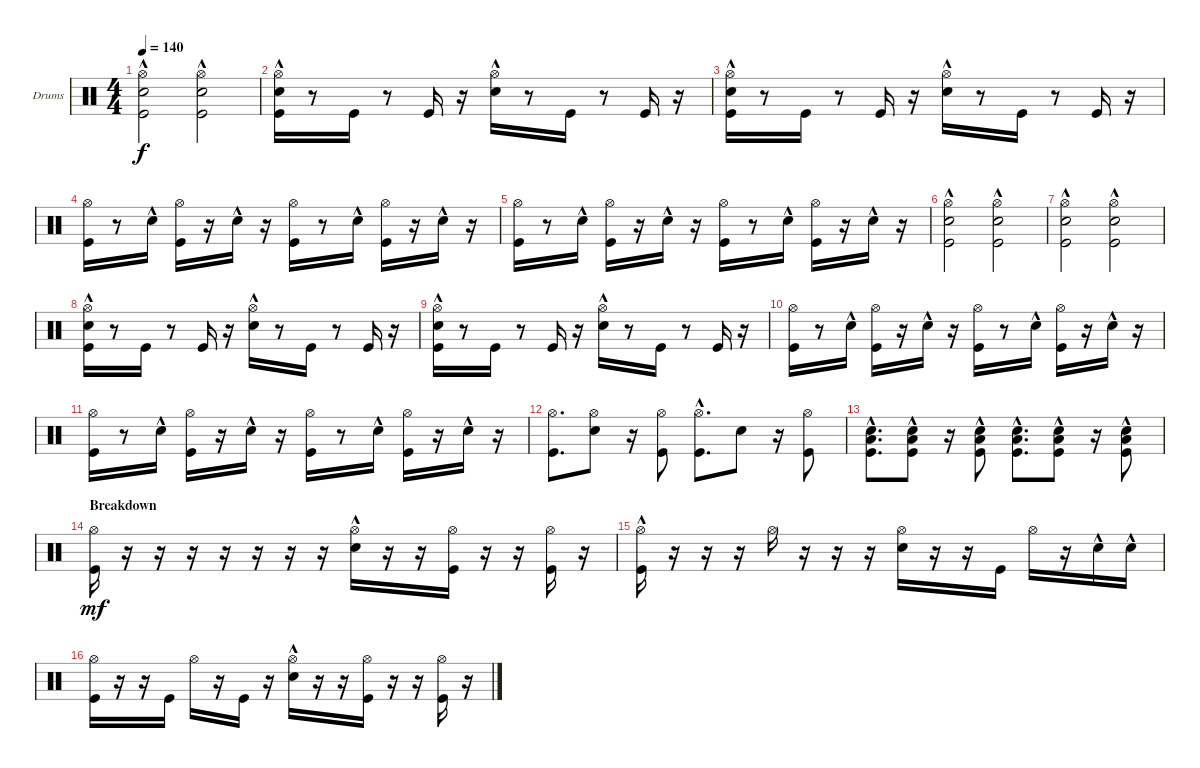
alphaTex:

\defaultSystemsLayout 4
\bracketExtendMode groupsimilarinstruments
\firstSystemTrackNameOrientation horizontal
\otherSystemsTrackNameOrientation horizontal
\track ("Drumkit - Paul" "Drums") {instrument percussion}
\staff {score}
\articulation defaults
\ts (4 4)
\tempo 140
\clef neutral
\ks c
("Snare (hit) 2"{hac} "Kick (hit)" "Hi-Hat (open)").2{dy f} ("Snare (hit) 2"{hac} "Kick (hit)" "Hi-Hat (open)").2 |
("Kick (hit)" "Snare (hit) 2"{hac} "Hi-Hat (open)").16 r.8 "Kick (hit)".16 r.8 "Kick (hit)".16 r.16 ("Snare (hit) 2"{hac} "Hi-Hat (open)").16 r.8 "Kick (hit)".16 r.8 "Kick (hit)".16 r.16 |
("Kick (hit)" "Snare (hit) 2"{hac} "Hi-Hat (open)").16 r.8 "Kick (hit)".16 r.8 "Kick (hit)".16 r.16 ("Snare (hit) 2"{hac} "Hi-Hat (open)").16 r.8 "Kick (hit)".16 r.8 "Kick (hit)".16 r.16 |
("Kick (hit)" "Hi-Hat (open)").16 r.8 "Snare (hit) 2"{hac}.16 ("Kick (hit)" "Hi-Hat (open)").16 r.16 "Snare (hit) 2"{hac}.16 r.16 ("Kick (hit)" "Hi-Hat (open)").16 r.8 "Snare (hit) 2"{hac}.16 ("Kick (hit)" "Hi-Hat (open)").16 r.16 "Snare (hit) 2"{hac}.16 r.16 |
("Kick (hit)" "Hi-Hat (open)").16 r.8 "Snare (hit) 2"{hac}.16 ("Kick (hit)" "Hi-Hat (open)").16 r.16 "Snare (hit) 2"{hac}.16 r.16 ("Kick (hit)" "Hi-Hat (open)").16 r.8 "Snare (hit) 2"{hac}.16 ("Kick (hit)" "Hi-Hat (open)").16 r.16 "Snare (hit) 2"{hac}.16 r.16 |
("Snare (hit) 2"{hac} "Kick (hit)" "Hi-Hat (open)").2 ("Snare (hit) 2"{hac} "Kick (hit)" "Hi-Hat (open)").2 |
("Snare (hit) 2"{hac} "Kick (hit)" "Hi-Hat (open)").2 ("Snare (hit) 2"{hac} "Kick (hit)" "Hi-Hat (open)").2 |
("Kick (hit)" "Snare (hit) 2"{hac} "Hi-Hat (open)").16 r.8 "Kick (hit)".16 r.8 "Kick (hit)".16 r.16 ("Snare (hit) 2"{hac} "Hi-Hat (open)").16 r.8 "Kick (hit)".16 r.8 "Kick (hit)".16 r.16 |
("Kick (hit)" "Snare (hit) 2"{hac} "Hi-Hat (open)").16 r.8 "Kick (hit)".16 r.8 "Kick (hit)".16 r.16 ("Snare (hit) 2"{hac} "Hi-Hat (open)").16 r.8 "Kick (hit)".16 r.8 "Kick (hit)".16 r.16 |
("Kick (hit)" "Hi-Hat (open)").16 r.8 "Snare (hit) 2"{hac}.16 ("Kick (hit)" "Hi-Hat (open)").16 r.16 "Snare (hit) 2"{hac}.16 r.16 ("Kick (hit)" "Hi-Hat (open)").16 r.8 "Snare (hit) 2"{hac}.16 ("Kick (hit)" "Hi-Hat (open)").16 r.16 "Snare (hit) 2"{hac}.16 r.16 |
("Kick (hit)" "Hi-Hat (open)").16 r.8 "Snare (hit) 2"{hac}.16 ("Kick (hit)" "Hi-Hat (open)").16 r.16 "Snare (hit) 2"{hac}.16 r.16 ("Kick (hit)" "Hi-Hat (open)").16 r.8 "Snare (hit) 2"{hac}.16 ("Kick (hit)" "Hi-Hat (open)").16 r.16 "Snare (hit) 2"{hac}.16 r.16 |
("Kick (hit)" "Hi-Hat (open)").8{d} ("Snare (hit) 2" "Hi-Hat (open)").8 r.16 ("Kick (hit)" "Hi-Hat (open)").8 ("Kick (hit)" "Hi-Hat (open)"{hac}).8{d} "Snare (hit) 2".8 r.16 ("Kick (hit)" "Hi-Hat (open)").8 |
("Snare (hit) 2"{hac} "Low Tom (hit)" "Kick (hit)").8{d} ("Snare (hit) 2"{hac} "Low Tom (hit)" "Kick (hit)").8 r.16 ("Snare (hit) 2"{hac} "Low Tom (hit)" "Kick (hit)").8 ("Snare (hit) 2"{hac} "Low Tom (hit)" "Kick (hit)").8{d} ("Snare (hit) 2"{hac} "Low Tom (hit)" "Kick (hit)").8 r.16 ("Snare (hit) 2"{hac} "Low Tom (hit)" "Kick (hit)").8 |
\section ("" "Breakdown")
("Kick (hit)" "Hi-Hat (open)").16{dy mf} r.16 r.16 r.16 r.16 r.16 r.16 r.16 ("Snare (hit) 2" "Hi-Hat (open)"{hac}).16 r.16 r.16 ("Kick (hit)" "Hi-Hat (open)").16 r.16 r.16 ("Kick (hit)" "Hi-Hat (open)").16 r.16 |
("Kick (hit)" "Hi-Hat (open)"{hac}).16 r.16 r.16 r.16 "Hi-Hat (open)".16 r.16 r.16 r.16 ("Snare (hit) 2" "Hi-Hat (open)").16 r.16 r.16 "Kick (hit)".16 "Hi-Hat (open)".16 r.16 "Snare (hit) 2"{hac}.16 "Snare (hit) 2"{hac}.16 |
("Kick (hit)" "Hi-Hat (open)").16 r.16 r.16 "Kick (hit)".16 "Hi-Hat (open)".16 r.16 "Kick (hit)".16 r.16 ("Snare (hit) 2"{hac} "Hi-Hat (open)").16 r.16 r.16 ("Kick (hit)" "Hi-Hat (open)").16 r.16 r.16 ("Kick (hit)" "Hi-Hat (open)").16 r.16
